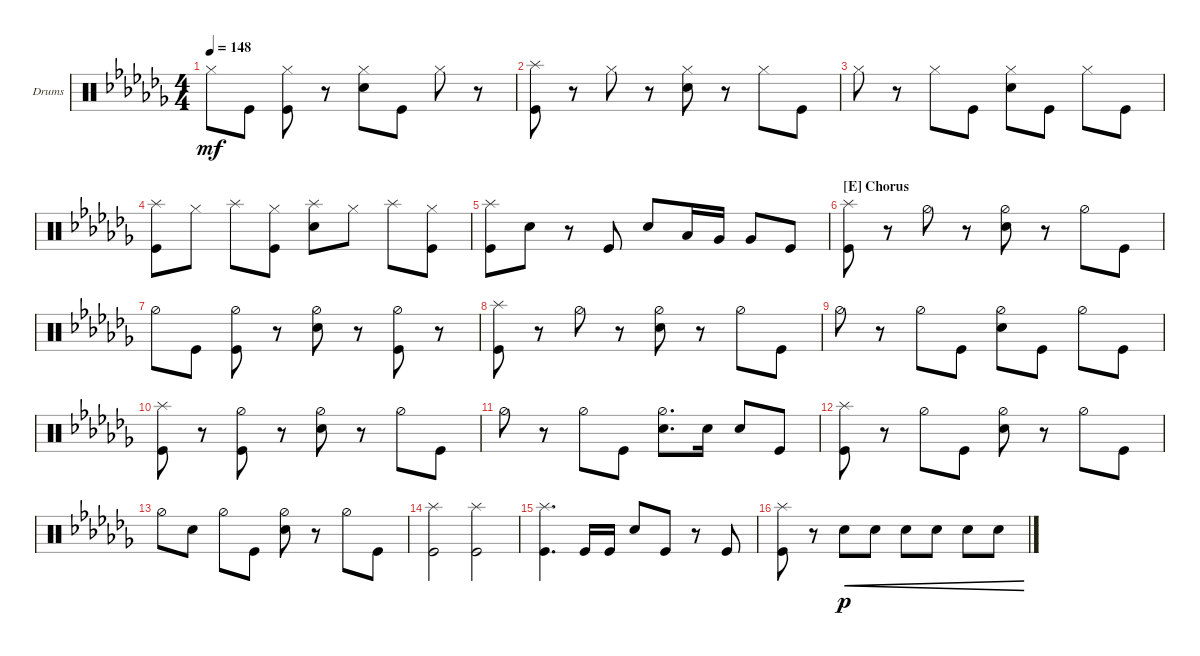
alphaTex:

\defaultSystemsLayout 4
\bracketExtendMode groupsimilarinstruments
\firstSystemTrackNameOrientation horizontal
\otherSystemsTrackNameOrientation horizontal
\track ("Drumkit" "Drums") {instrument percussion}
\staff {score}
\articulation defaults
\ts (4 4)
\tempo 148
\clef neutral
\ks abminor "Hi-Hat (closed)".8{dy mf} "Kick (hit)".8
("Hi-Hat (closed)" "Kick (hit)").8 r.8 ("Hi-Hat (closed)" "Snare (hit) 2").8 "Kick (hit)".8 "Hi-Hat (closed)".8 r.8 |
("Splash (hit)" "Kick (hit)").8 r.8 "Hi-Hat (closed)".8 r.8 ("Hi-Hat (closed)" "Snare (hit) 2").8 r.8 "Hi-Hat (closed)".8 "Kick (hit)".8 |
"Hi-Hat (closed)".8 r.8 "Hi-Hat (closed)".8 "Kick (hit)".8 ("Hi-Hat (closed)" "Snare (hit) 2").8 "Kick (hit)".8 "Hi-Hat (closed)".8 "Kick (hit)".8 |
("Splash (hit)" "Kick (hit)").8 "Hi-Hat (closed)".8 "Splash (hit)".8 ("Hi-Hat (closed)" "Kick (hit)").8 ("Splash (hit)" "Snare (hit) 2").8 "Hi-Hat (closed)".8 "Splash (hit)".8 ("Kick (hit)" "Hi-Hat (closed)").8 |
("Kick (hit)" "Splash (hit)").8 "Snare (hit) 2".8 r.8 "Kick (hit)".8 "Snare (hit) 2".8 "Low Tom (hit)".16 "Very Low Tom (hit)".16 "Very Low Tom (hit)".8 "Kick (hit)".8 |
\section ("E" "Chorus")
("Kick (hit)" "Splash (hit)").8 r.8 "Hi-Hat (half)".8 r.8 ("Hi-Hat (half)" "Snare (hit) 2").8 r.8 "Hi-Hat (half)".8 "Kick (hit)".8 |
"Hi-Hat (half)".8 "Kick (hit)".8 ("Kick (hit)" "Hi-Hat (half)").8 r.8 ("Snare (hit) 2" "Hi-Hat (half)").8 r.8 ("Hi-Hat (half)" "Kick (hit)").8 r.8 |
("Kick (hit)" "Splash (hit)").8 r.8 "Hi-Hat (half)".8 r.8 ("Hi-Hat (half)" "Snare (hit) 2").8 r.8 "Hi-Hat (half)".8 "Kick (hit)".8 |
"Hi-Hat (half)".8 r.8 "Hi-Hat (half)".8 "Kick (hit)".8 ("Snare (hit) 2" "Hi-Hat (half)").8 "Kick (hit)".8 "Hi-Hat (half)".8 "Kick (hit)".8 |
("Kick (hit)" "Splash (hit)").8 r.8 ("Hi-Hat (half)" "Kick (hit)").8 r.8 ("Hi-Hat (half)" "Snare (hit) 2").8 r.8 "Hi-Hat (half)".8 "Kick (hit)".8 |
"Hi-Hat (half)".8 r.8 "Hi-Hat (half)".8 "Kick (hit)".8 ("Hi-Hat (half)" "Snare (hit) 2").8{d} "Snare (hit) 2".16 "Snare (hit) 2".8 "Kick (hit)".8 |
("Splash (hit)" "Kick (hit)").8 r.8 "Hi-Hat (half)".8 "Kick (hit)".8 ("Hi-Hat (half)" "Snare (hit) 2").8 r.8 "Hi-Hat (half)".8 "Kick (hit)".8 |
"Hi-Hat (half)".8 "Snare (hit) 2".8 "Hi-Hat (half)".8 "Kick (hit)".8 ("Hi-Hat (half)" "Snare (hit) 2").8 r.8 "Hi-Hat (half)".8 "Kick (hit)".8 |
("Kick (hit)" "Splash (hit)").2 ("Kick (hit)" "Splash (hit)").2 |
("Kick (hit)" "Splash (hit)").4{d} "Kick (hit)".16 "Kick (hit)".16 "Snare (hit) 2".8 "Kick (hit)".8 r.8 "Kick (hit)".8 |
("Kick (hit)" "Splash (hit)").8 r.8 "Snare (hit) 2".8{cre dy p} "Snare (hit) 2".8{cre} "Snare (hit) 2".8{cre} "Snare (hit) 2".8{cre} "Snare (hit) 2".8{cre} "Snare (hit) 2".8{cre}
